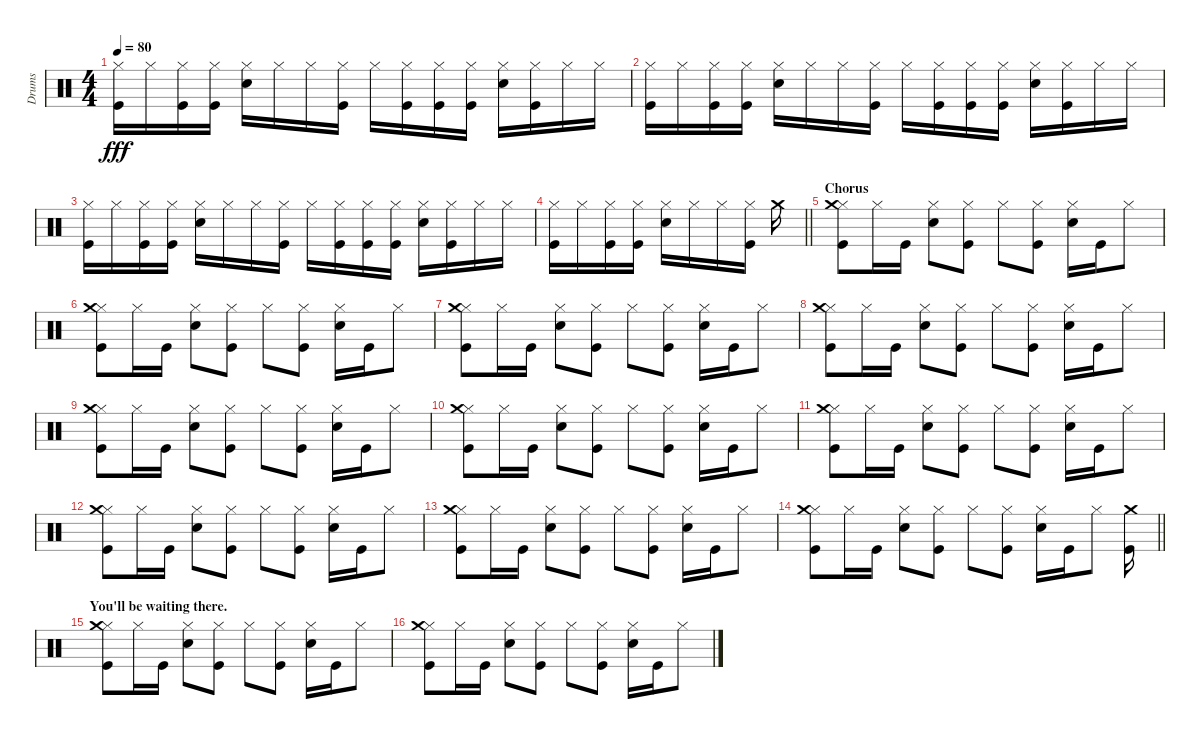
\track ("Drums" "Drums") {instrument percussion}
\staff {score}
\articulation defaults
\ts (4 4)
\tempo 80
\clef neutral
\ks c
("Hi-Hat (closed)" "Kick (hit)").16{dy fff} "Hi-Hat (closed)".16 ("Hi-Hat (closed)" "Kick (hit)").16 ("Hi-Hat (closed)" "Kick (hit)").16 ("Hi-Hat (closed)" "Snare (hit) 2").16 "Hi-Hat (closed)".16 "Hi-Hat (closed)".16 ("Hi-Hat (closed)" "Kick (hit)").16 "Hi-Hat (closed)".16 ("Hi-Hat (closed)" "Kick (hit)").16 ("Hi-Hat (closed)" "Kick (hit)").16 ("Hi-Hat (closed)" "Kick (hit)").16 ("Hi-Hat (closed)" "Snare (hit) 2").16 ("Hi-Hat (closed)" "Kick (hit)").16 "Hi-Hat (closed)".16 "Hi-Hat (closed)".16 |
("Hi-Hat (closed)" "Kick (hit)").16 "Hi-Hat (closed)".16 ("Hi-Hat (closed)" "Kick (hit)").16 ("Hi-Hat (closed)" "Kick (hit)").16 ("Hi-Hat (closed)" "Snare (hit) 2").16 "Hi-Hat (closed)".16 "Hi-Hat (closed)".16 ("Hi-Hat (closed)" "Kick (hit)").16 "Hi-Hat (closed)".16 ("Hi-Hat (closed)" "Kick (hit)").16 ("Hi-Hat (closed)" "Kick (hit)").16 ("Hi-Hat (closed)" "Kick (hit)").16 ("Hi-Hat (closed)" "Snare (hit) 2").16 ("Hi-Hat (closed)" "Kick (hit)").16 "Hi-Hat (closed)".16 "Hi-Hat (closed)".16 |
("Hi-Hat (closed)" "Kick (hit)").16 "Hi-Hat (closed)".16 ("Hi-Hat (closed)" "Kick (hit)").16 ("Hi-Hat (closed)" "Kick (hit)").16 ("Hi-Hat (closed)" "Snare (hit) 2").16 "Hi-Hat (closed)".16 "Hi-Hat (closed)".16 ("Hi-Hat (closed)" "Kick (hit)").16 "Hi-Hat (closed)".16 ("Hi-Hat (closed)" "Kick (hit)").16 ("Hi-Hat (closed)" "Kick (hit)").16 ("Hi-Hat (closed)" "Kick (hit)").16 ("Hi-Hat (closed)" "Snare (hit) 2").16 ("Hi-Hat (closed)" "Kick (hit)").16 "Hi-Hat (closed)".16 "Hi-Hat (closed)".16 |
\barLineRight lightlight
("Hi-Hat (closed)" "Kick (hit)").16 "Hi-Hat (closed)".16 ("Hi-Hat (closed)" "Kick (hit)").16 ("Hi-Hat (closed)" "Kick (hit)").16 ("Hi-Hat (closed)" "Snare (hit) 2").16 "Hi-Hat (closed)".16 "Hi-Hat (closed)".16 ("Hi-Hat (closed)" "Kick (hit)").16 "Crash medium (hit)".16 |
\section ("" "Chorus")
("Hi-Hat (closed)" "Kick (hit)" "Crash medium (hit)").8 "Hi-Hat (closed)".16 "Kick (hit)".16 ("Hi-Hat (closed)" "Snare (hit) 2").8 ("Hi-Hat (closed)" "Kick (hit)").8 "Hi-Hat (closed)".8 ("Hi-Hat (closed)" "Kick (hit)").8 ("Hi-Hat (closed)" "Snare (hit) 2").16 "Kick (hit)".16 "Hi-Hat (closed)".8 |
("Hi-Hat (closed)" "Kick (hit)" "Crash medium (hit)").8 "Hi-Hat (closed)".16 "Kick (hit)".16 ("Hi-Hat (closed)" "Snare (hit) 2").8 ("Hi-Hat (closed)" "Kick (hit)").8 "Hi-Hat (closed)".8 ("Hi-Hat (closed)" "Kick (hit)").8 ("Hi-Hat (closed)" "Snare (hit) 2").16 "Kick (hit)".16 "Hi-Hat (closed)".8 |
("Hi-Hat (closed)" "Kick (hit)" "Crash medium (hit)").8 "Hi-Hat (closed)".16 "Kick (hit)".16 ("Hi-Hat (closed)" "Snare (hit) 2").8 ("Hi-Hat (closed)" "Kick (hit)").8 "Hi-Hat (closed)".8 ("Hi-Hat (closed)" "Kick (hit)").8 ("Hi-Hat (closed)" "Snare (hit) 2").16 "Kick (hit)".16 "Hi-Hat (closed)".8 |
("Hi-Hat (closed)" "Kick (hit)" "Crash medium (hit)").8 "Hi-Hat (closed)".16 "Kick (hit)".16 ("Hi-Hat (closed)" "Snare (hit) 2").8 ("Hi-Hat (closed)" "Kick (hit)").8 "Hi-Hat (closed)".8 ("Hi-Hat (closed)" "Kick (hit)").8 ("Hi-Hat (closed)" "Snare (hit) 2").16 "Kick (hit)".16 "Hi-Hat (closed)".8 |
("Hi-Hat (closed)" "Kick (hit)" "Crash medium (hit)").8 "Hi-Hat (closed)".16 "Kick (hit)".16 ("Hi-Hat (closed)" "Snare (hit) 2").8 ("Hi-Hat (closed)" "Kick (hit)").8 "Hi-Hat (closed)".8 ("Hi-Hat (closed)" "Kick (hit)").8 ("Hi-Hat (closed)" "Snare (hit) 2").16 "Kick (hit)".16 "Hi-Hat (closed)".8 |
("Hi-Hat (closed)" "Kick (hit)" "Crash medium (hit)").8 "Hi-Hat (closed)".16 "Kick (hit)".16 ("Hi-Hat (closed)" "Snare (hit) 2").8 ("Hi-Hat (closed)" "Kick (hit)").8 "Hi-Hat (closed)".8 ("Hi-Hat (closed)" "Kick (hit)").8 ("Hi-Hat (closed)" "Snare (hit) 2").16 "Kick (hit)".16 "Hi-Hat (closed)".8 |
("Hi-Hat (closed)" "Kick (hit)" "Crash medium (hit)").8 "Hi-Hat (closed)".16 "Kick (hit)".16 ("Hi-Hat (closed)" "Snare (hit) 2").8 ("Hi-Hat (closed)" "Kick (hit)").8 "Hi-Hat (closed)".8 ("Hi-Hat (closed)" "Kick (hit)").8 ("Hi-Hat (closed)" "Snare (hit) 2").16 "Kick (hit)".16 "Hi-Hat (closed)".8 |
("Hi-Hat (closed)" "Kick (hit)" "Crash medium (hit)").8 "Hi-Hat (closed)".16 "Kick (hit)".16 ("Hi-Hat (closed)" "Snare (hit) 2").8 ("Hi-Hat (closed)" "Kick (hit)").8 "Hi-Hat (closed)".8 ("Hi-Hat (closed)" "Kick (hit)").8 ("Hi-Hat (closed)" "Snare (hit) 2").16 "Kick (hit)".16 "Hi-Hat (closed)".8 |
("Hi-Hat (closed)" "Kick (hit)" "Crash medium (hit)").8 "Hi-Hat (closed)".16 "Kick (hit)".16 ("Hi-Hat (closed)" "Snare (hit) 2").8 ("Hi-Hat (closed)" "Kick (hit)").8 "Hi-Hat (closed)".8 ("Hi-Hat (closed)" "Kick (hit)").8 ("Hi-Hat (closed)" "Snare (hit) 2").16 "Kick (hit)".16 "Hi-Hat (closed)".8 |
\barLineRight lightlight
("Hi-Hat (closed)" "Kick (hit)" "Crash medium (hit)").8 "Hi-Hat (closed)".16 "Kick (hit)".16 ("Hi-Hat (closed)" "Snare (hit) 2").8 ("Hi-Hat (closed)" "Kick (hit)").8 "Hi-Hat (closed)".8 ("Hi-Hat (closed)" "Kick (hit)").8 ("Hi-Hat (closed)" "Snare (hit) 2").16 "Kick (hit)".16 "Hi-Hat (closed)".8 ("Kick (hit)" "Crash medium (hit)").16 |
\section ("" "You'll be waiting there.")
("Hi-Hat (closed)" "Kick (hit)" "Crash medium (hit)").8 "Hi-Hat (closed)".16 "Kick (hit)".16 ("Hi-Hat (closed)" "Snare (hit) 2").8 ("Hi-Hat (closed)" "Kick (hit)").8 "Hi-Hat (closed)".8 ("Hi-Hat (closed)" "Kick (hit)").8 ("Hi-Hat (closed)" "Snare (hit) 2").16 "Kick (hit)".16 "Hi-Hat (closed)".8 |
("Hi-Hat (closed)" "Kick (hit)" "Crash medium (hit)").8 "Hi-Hat (closed)".16 "Kick (hit)".16 ("Hi-Hat (closed)" "Snare (hit) 2").8 ("Hi-Hat (closed)" "Kick (hit)").8 "Hi-Hat (closed)".8 ("Hi-Hat (closed)" "Kick (hit)").8 ("Hi-Hat (closed)" "Snare (hit) 2").16 "Kick (hit)".16 "Hi-Hat (closed)".8
